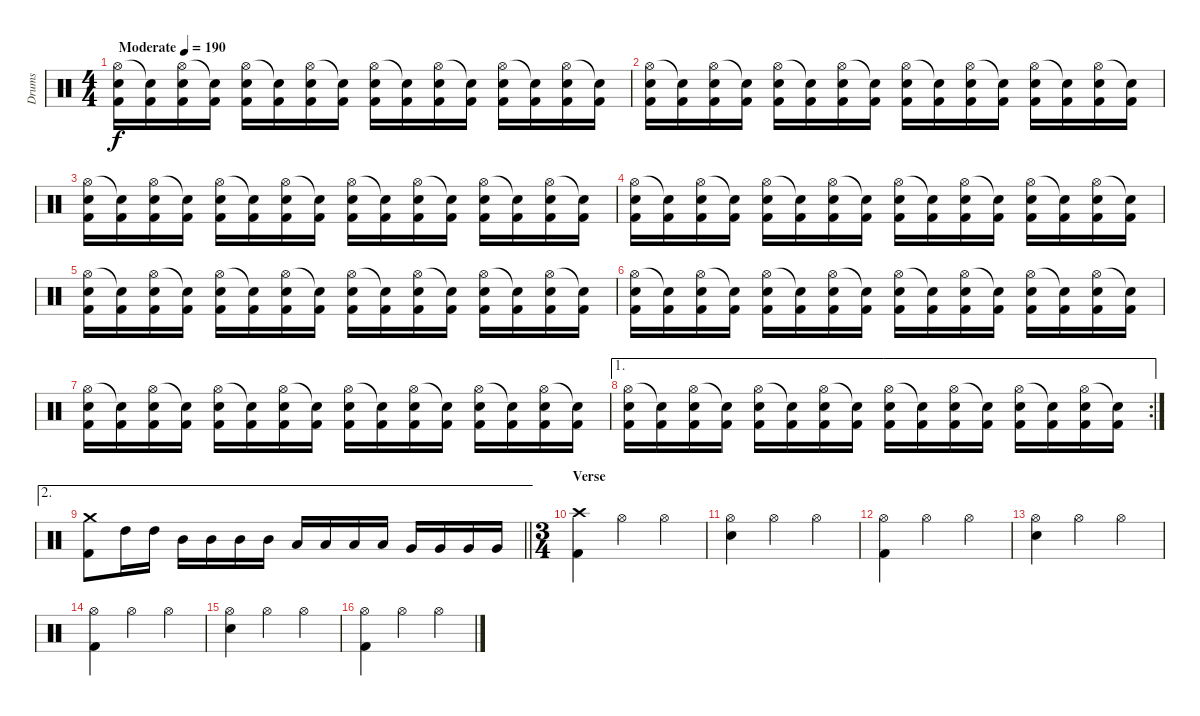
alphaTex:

\track ("Drums" "Drums") {instrument percussion}
\staff {score}
\articulation defaults
\ts (4 4)
\tempo (190 "Moderate")
\clef neutral
\ks c
("Hi-Hat (open)" "Electric Snare (hit)" "Kick (hit) 2").16{dy f} ("Snare (hit)"{t} "Kick (hit) 2").16 ("Hi-Hat (open)" "Electric Snare (hit)" "Kick (hit) 2").16 ("Snare (hit)"{t} "Kick (hit) 2").16 ("Hi-Hat (open)" "Electric Snare (hit)" "Kick (hit) 2").16 ("Snare (hit)"{t} "Kick (hit) 2").16 ("Hi-Hat (open)" "Electric Snare (hit)" "Kick (hit) 2").16 ("Snare (hit)"{t} "Kick (hit) 2").16 ("Hi-Hat (open)" "Electric Snare (hit)" "Kick (hit) 2").16 ("Snare (hit)"{t} "Kick (hit) 2").16 ("Hi-Hat (open)" "Electric Snare (hit)" "Kick (hit) 2").16 ("Snare (hit)"{t} "Kick (hit) 2").16 ("Hi-Hat (open)" "Electric Snare (hit)" "Kick (hit) 2").16 ("Snare (hit)"{t} "Kick (hit) 2").16 ("Hi-Hat (open)" "Electric Snare (hit)" "Kick (hit) 2").16 ("Snare (hit)"{t} "Kick (hit) 2").16 |
("Hi-Hat (open)" "Electric Snare (hit)" "Kick (hit) 2").16 ("Snare (hit)"{t} "Kick (hit) 2").16 ("Hi-Hat (open)" "Electric Snare (hit)" "Kick (hit) 2").16 ("Snare (hit)"{t} "Kick (hit) 2").16 ("Hi-Hat (open)" "Electric Snare (hit)" "Kick (hit) 2").16 ("Snare (hit)"{t} "Kick (hit) 2").16 ("Hi-Hat (open)" "Electric Snare (hit)" "Kick (hit) 2").16 ("Snare (hit)"{t} "Kick (hit) 2").16 ("Hi-Hat (open)" "Electric Snare (hit)" "Kick (hit) 2").16 ("Snare (hit)"{t} "Kick (hit) 2").16 ("Hi-Hat (open)" "Electric Snare (hit)" "Kick (hit) 2").16 ("Snare (hit)"{t} "Kick (hit) 2").16 ("Hi-Hat (open)" "Electric Snare (hit)" "Kick (hit) 2").16 ("Snare (hit)"{t} "Kick (hit) 2").16 ("Hi-Hat (open)" "Electric Snare (hit)" "Kick (hit) 2").16 ("Snare (hit)"{t} "Kick (hit) 2").16 |
("Hi-Hat (open)" "Electric Snare (hit)" "Kick (hit) 2").16 ("Snare (hit)"{t} "Kick (hit) 2").16 ("Hi-Hat (open)" "Electric Snare (hit)" "Kick (hit) 2").16 ("Snare (hit)"{t} "Kick (hit) 2").16 ("Hi-Hat (open)" "Electric Snare (hit)" "Kick (hit) 2").16 ("Snare (hit)"{t} "Kick (hit) 2").16 ("Hi-Hat (open)" "Electric Snare (hit)" "Kick (hit) 2").16 ("Snare (hit)"{t} "Kick (hit) 2").16 ("Hi-Hat (open)" "Electric Snare (hit)" "Kick (hit) 2").16 ("Snare (hit)"{t} "Kick (hit) 2").16 ("Hi-Hat (open)" "Electric Snare (hit)" "Kick (hit) 2").16 ("Snare (hit)"{t} "Kick (hit) 2").16 ("Hi-Hat (open)" "Electric Snare (hit)" "Kick (hit) 2").16 ("Snare (hit)"{t} "Kick (hit) 2").16 ("Hi-Hat (open)" "Electric Snare (hit)" "Kick (hit) 2").16 ("Snare (hit)"{t} "Kick (hit) 2").16 |
("Hi-Hat (open)" "Electric Snare (hit)" "Kick (hit) 2").16 ("Snare (hit)"{t} "Kick (hit) 2").16 ("Hi-Hat (open)" "Electric Snare (hit)" "Kick (hit) 2").16 ("Snare (hit)"{t} "Kick (hit) 2").16 ("Hi-Hat (open)" "Electric Snare (hit)" "Kick (hit) 2").16 ("Snare (hit)"{t} "Kick (hit) 2").16 ("Hi-Hat (open)" "Electric Snare (hit)" "Kick (hit) 2").16 ("Snare (hit)"{t} "Kick (hit) 2").16 ("Hi-Hat (open)" "Electric Snare (hit)" "Kick (hit) 2").16 ("Snare (hit)"{t} "Kick (hit) 2").16 ("Hi-Hat (open)" "Electric Snare (hit)" "Kick (hit) 2").16 ("Snare (hit)"{t} "Kick (hit) 2").16 ("Hi-Hat (open)" "Electric Snare (hit)" "Kick (hit) 2").16 ("Snare (hit)"{t} "Kick (hit) 2").16 ("Hi-Hat (open)" "Electric Snare (hit)" "Kick (hit) 2").16 ("Snare (hit)"{t} "Kick (hit) 2").16 |
("Hi-Hat (open)" "Electric Snare (hit)" "Kick (hit) 2").16 ("Snare (hit)"{t} "Kick (hit) 2").16 ("Hi-Hat (open)" "Electric Snare (hit)" "Kick (hit) 2").16 ("Snare (hit)"{t} "Kick (hit) 2").16 ("Hi-Hat (open)" "Electric Snare (hit)" "Kick (hit) 2").16 ("Snare (hit)"{t} "Kick (hit) 2").16 ("Hi-Hat (open)" "Electric Snare (hit)" "Kick (hit) 2").16 ("Snare (hit)"{t} "Kick (hit) 2").16 ("Hi-Hat (open)" "Electric Snare (hit)" "Kick (hit) 2").16 ("Snare (hit)"{t} "Kick (hit) 2").16 ("Hi-Hat (open)" "Electric Snare (hit)" "Kick (hit) 2").16 ("Snare (hit)"{t} "Kick (hit) 2").16 ("Hi-Hat (open)" "Electric Snare (hit)" "Kick (hit) 2").16 ("Snare (hit)"{t} "Kick (hit) 2").16 ("Hi-Hat (open)" "Electric Snare (hit)" "Kick (hit) 2").16 ("Snare (hit)"{t} "Kick (hit) 2").16 |
("Hi-Hat (open)" "Electric Snare (hit)" "Kick (hit) 2").16 ("Snare (hit)"{t} "Kick (hit) 2").16 ("Hi-Hat (open)" "Electric Snare (hit)" "Kick (hit) 2").16 ("Snare (hit)"{t} "Kick (hit) 2").16 ("Hi-Hat (open)" "Electric Snare (hit)" "Kick (hit) 2").16 ("Snare (hit)"{t} "Kick (hit) 2").16 ("Hi-Hat (open)" "Electric Snare (hit)" "Kick (hit) 2").16 ("Snare (hit)"{t} "Kick (hit) 2").16 ("Hi-Hat (open)" "Electric Snare (hit)" "Kick (hit) 2").16 ("Snare (hit)"{t} "Kick (hit) 2").16 ("Hi-Hat (open)" "Electric Snare (hit)" "Kick (hit) 2").16 ("Snare (hit)"{t} "Kick (hit) 2").16 ("Hi-Hat (open)" "Electric Snare (hit)" "Kick (hit) 2").16 ("Snare (hit)"{t} "Kick (hit) 2").16 ("Hi-Hat (open)" "Electric Snare (hit)" "Kick (hit) 2").16 ("Snare (hit)"{t} "Kick (hit) 2").16 |
("Hi-Hat (open)" "Electric Snare (hit)" "Kick (hit) 2").16 ("Snare (hit)"{t} "Kick (hit) 2").16 ("Hi-Hat (open)" "Electric Snare (hit)" "Kick (hit) 2").16 ("Snare (hit)"{t} "Kick (hit) 2").16 ("Hi-Hat (open)" "Electric Snare (hit)" "Kick (hit) 2").16 ("Snare (hit)"{t} "Kick (hit) 2").16 ("Hi-Hat (open)" "Electric Snare (hit)" "Kick (hit) 2").16 ("Snare (hit)"{t} "Kick (hit) 2").16 ("Hi-Hat (open)" "Electric Snare (hit)" "Kick (hit) 2").16 ("Snare (hit)"{t} "Kick (hit) 2").16 ("Hi-Hat (open)" "Electric Snare (hit)" "Kick (hit) 2").16 ("Snare (hit)"{t} "Kick (hit) 2").16 ("Hi-Hat (open)" "Electric Snare (hit)" "Kick (hit) 2").16 ("Snare (hit)"{t} "Kick (hit) 2").16 ("Hi-Hat (open)" "Electric Snare (hit)" "Kick (hit) 2").16 ("Snare (hit)"{t} "Kick (hit) 2").16 |
\ae 1
\rc 2
("Hi-Hat (open)" "Electric Snare (hit)" "Kick (hit) 2").16 ("Snare (hit)"{t} "Kick (hit) 2").16 ("Hi-Hat (open)" "Electric Snare (hit)" "Kick (hit) 2").16 ("Snare (hit)"{t} "Kick (hit) 2").16 ("Hi-Hat (open)" "Electric Snare (hit)" "Kick (hit) 2").16 ("Snare (hit)"{t} "Kick (hit) 2").16 ("Hi-Hat (open)" "Electric Snare (hit)" "Kick (hit) 2").16 ("Snare (hit)"{t} "Kick (hit) 2").16 ("Hi-Hat (open)" "Electric Snare (hit)" "Kick (hit) 2").16 ("Snare (hit)"{t} "Kick (hit) 2").16 ("Hi-Hat (open)" "Electric Snare (hit)" "Kick (hit) 2").16 ("Snare (hit)"{t} "Kick (hit) 2").16 ("Hi-Hat (open)" "Electric Snare (hit)" "Kick (hit) 2").16 ("Snare (hit)"{t} "Kick (hit) 2").16 ("Hi-Hat (open)" "Electric Snare (hit)" "Kick (hit) 2").16 ("Snare (hit)"{t} "Kick (hit) 2").16 |
\ae 2
\barLineRight lightlight
("Crash medium (hit)" "Kick (hit) 2").8 "High Tom (hit)".16 "High Tom (hit)".16 "Mid Tom (hit)".16 "Mid Tom (hit)".16 "Mid Tom (hit)".16 "Mid Tom (hit)".16 "Low Tom (hit)".16 "Low Tom (hit)".16 "Low Tom (hit)".16 "Low Tom (hit)".16 "Very Low Tom (hit)".16 "Very Low Tom (hit)".16 "Very Low Tom (hit)".16 "Very Low Tom (hit)".16 |
\ts (3 4)
\section ("" "Verse")
("Crash high (hit)" "Kick (hit) 2").4 "Hi-Hat (open)".4 "Hi-Hat (open)".4 |
("Hi-Hat (open)" "Electric Snare (hit)").4 "Hi-Hat (open)".4 "Hi-Hat (open)".4 |
("Hi-Hat (open)" "Kick (hit) 2").4 "Hi-Hat (open)".4 "Hi-Hat (open)".4 |
("Hi-Hat (open)" "Electric Snare (hit)").4 "Hi-Hat (open)".4 "Hi-Hat (open)".4 |
("Hi-Hat (open)" "Kick (hit) 2").4 "Hi-Hat (open)".4 "Hi-Hat (open)".4 |
("Hi-Hat (open)" "Electric Snare (hit)").4 "Hi-Hat (open)".4 "Hi-Hat (open)".4 |
("Hi-Hat (open)" "Kick (hit) 2").4 "Hi-Hat (open)".4 "Hi-Hat (open)".4
